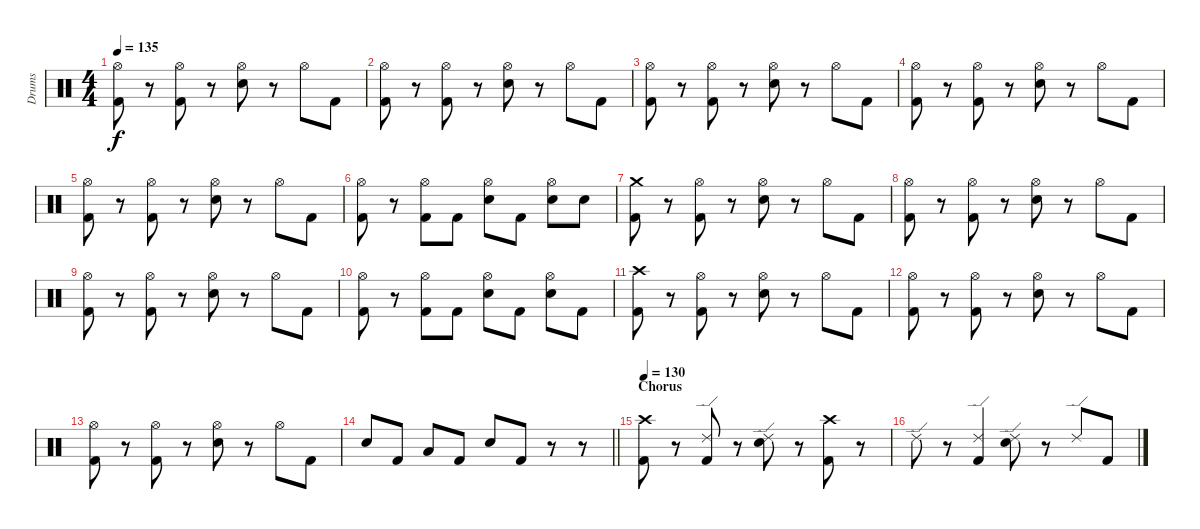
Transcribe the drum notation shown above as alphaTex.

\track ("Drums" "Drums") {instrument percussion}
\staff {score}
\articulation defaults
\ts (4 4)
\tempo 135
\clef neutral
\ks c
("Hi-Hat (open)" "Kick (hit) 2").8{dy f} r.8 ("Hi-Hat (open)" "Kick (hit) 2").8 r.8 ("Hi-Hat (open)" "Electric Snare (hit)").8 r.8 "Hi-Hat (open)".8 "Kick (hit) 2".8 |
("Hi-Hat (open)" "Kick (hit) 2").8 r.8 ("Hi-Hat (open)" "Kick (hit) 2").8 r.8 ("Hi-Hat (open)" "Electric Snare (hit)").8 r.8 "Hi-Hat (open)".8 "Kick (hit) 2".8 |
("Hi-Hat (open)" "Kick (hit) 2").8 r.8 ("Hi-Hat (open)" "Kick (hit) 2").8 r.8 ("Hi-Hat (open)" "Electric Snare (hit)").8 r.8 "Hi-Hat (open)".8 "Kick (hit) 2".8 |
("Hi-Hat (open)" "Kick (hit) 2").8 r.8 ("Hi-Hat (open)" "Kick (hit) 2").8 r.8 ("Hi-Hat (open)" "Electric Snare (hit)").8 r.8 "Hi-Hat (open)".8 "Kick (hit) 2".8 |
("Hi-Hat (open)" "Kick (hit) 2").8 r.8 ("Hi-Hat (open)" "Kick (hit) 2").8 r.8 ("Hi-Hat (open)" "Electric Snare (hit)").8 r.8 "Hi-Hat (open)".8 "Kick (hit) 2".8 |
("Hi-Hat (open)" "Kick (hit) 2").8 r.8 ("Hi-Hat (open)" "Kick (hit) 2").8 "Kick (hit) 2".8 ("Hi-Hat (open)" "Electric Snare (hit)").8 "Kick (hit) 2".8 ("Hi-Hat (open)" "Electric Snare (hit)").8 "Electric Snare (hit)".8 |
("Crash medium (hit)" "Kick (hit) 2").8 r.8 ("Hi-Hat (open)" "Kick (hit) 2").8 r.8 ("Hi-Hat (open)" "Electric Snare (hit)").8 r.8 "Hi-Hat (open)".8 "Kick (hit) 2".8 |
("Hi-Hat (open)" "Kick (hit) 2").8 r.8 ("Hi-Hat (open)" "Kick (hit) 2").8 r.8 ("Hi-Hat (open)" "Electric Snare (hit)").8 r.8 "Hi-Hat (open)".8 "Kick (hit) 2".8 |
("Hi-Hat (open)" "Kick (hit) 2").8 r.8 ("Hi-Hat (open)" "Kick (hit) 2").8 r.8 ("Hi-Hat (open)" "Electric Snare (hit)").8 r.8 "Hi-Hat (open)".8 "Kick (hit) 2".8 |
("Hi-Hat (open)" "Kick (hit) 2").8 r.8 ("Hi-Hat (open)" "Kick (hit) 2").8 "Kick (hit) 2".8 ("Hi-Hat (open)" "Electric Snare (hit)").8 "Kick (hit) 2".8 ("Hi-Hat (open)" "Electric Snare (hit)").8 "Kick (hit) 2".8 |
("Crash high (hit)" "Kick (hit) 2").8 r.8 ("Hi-Hat (open)" "Kick (hit) 2").8 r.8 ("Hi-Hat (open)" "Electric Snare (hit)").8 r.8 "Hi-Hat (open)".8 "Kick (hit) 2".8 |
("Hi-Hat (open)" "Kick (hit) 2").8 r.8 ("Hi-Hat (open)" "Kick (hit) 2").8 r.8 ("Hi-Hat (open)" "Electric Snare (hit)").8 r.8 "Hi-Hat (open)".8 "Kick (hit) 2".8 |
("Hi-Hat (open)" "Kick (hit) 2").8 r.8 ("Hi-Hat (open)" "Kick (hit) 2").8 r.8 ("Hi-Hat (open)" "Electric Snare (hit)").8 r.8 "Hi-Hat (open)".8 "Kick (hit) 2".8 |
\barLineRight lightlight "Electric Snare (hit)".8 "Kick (hit) 2".8 "Low Tom (hit)".8 "Kick (hit) 2".8 "Electric Snare (hit)".8 "Kick (hit) 2".8
r.8 r.8 |
\section ("" "Chorus")
\tempo 130
("Crash high (hit)" "Kick (hit) 2").8 r.8 ("Ride (edge) 2" "Kick (hit) 2").8 r.8 ("Ride (edge) 2" "Electric Snare (hit)").8 r.8 ("Crash high (hit)" "Kick (hit) 2").8 r.8 |
"Ride (edge) 2".8 r.8 ("Ride (edge) 2" "Kick (hit) 2").4 ("Ride (edge) 2" "Electric Snare (hit)").8 r.8 "Ride (edge) 2".8 "Kick (hit) 2".8
